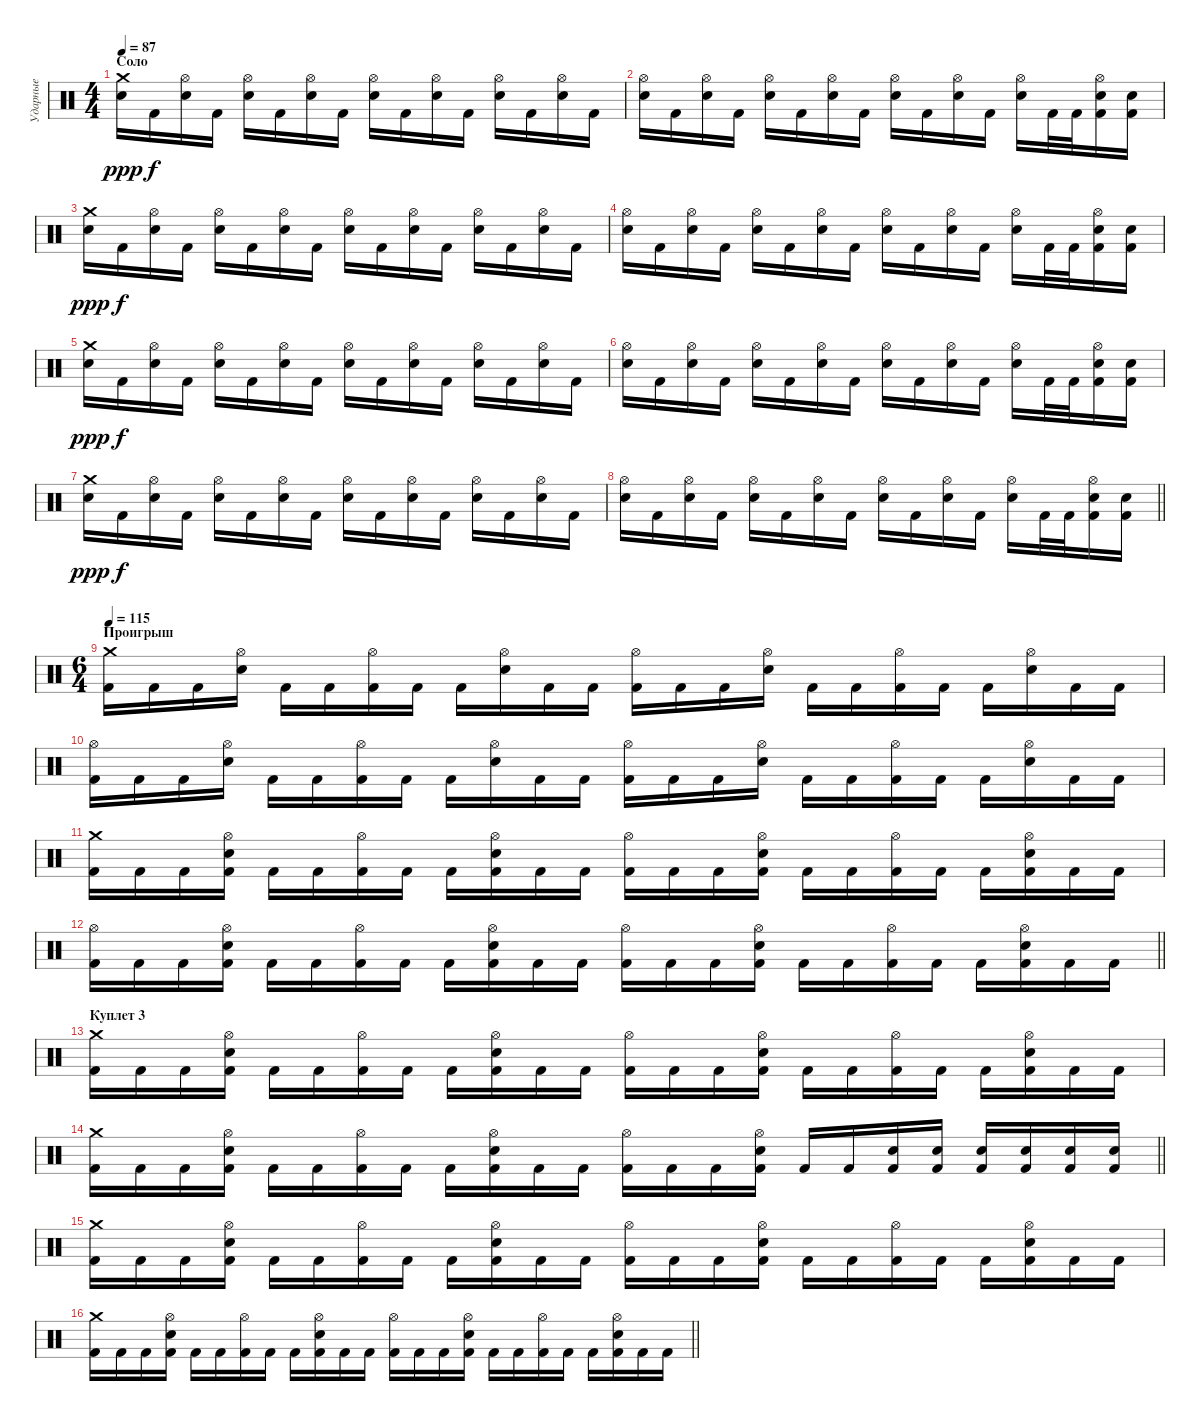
\track ("Ударные" "Ударные") {instrument percussion}
\staff {score}
\articulation defaults
\ts (4 4)
\section ("" "Соло")
\tempo 87
\clef neutral
\ks c
("Crash medium (hit)" "Electric Snare (hit)").16{dy ppp} "Kick (hit) 2".16{dy f} ("Hi-Hat (open)" "Electric Snare (hit)").16 "Kick (hit) 2".16 ("Hi-Hat (open)" "Electric Snare (hit)").16 "Kick (hit) 2".16 ("Hi-Hat (open)" "Electric Snare (hit)").16 "Kick (hit) 2".16 ("Hi-Hat (open)" "Electric Snare (hit)").16 "Kick (hit) 2".16 ("Hi-Hat (open)" "Electric Snare (hit)").16 "Kick (hit) 2".16 ("Hi-Hat (open)" "Electric Snare (hit)").16 "Kick (hit) 2".16 ("Hi-Hat (open)" "Electric Snare (hit)").16 "Kick (hit) 2".16 |
("Hi-Hat (open)" "Electric Snare (hit)").16 "Kick (hit) 2".16 ("Hi-Hat (open)" "Electric Snare (hit)").16 "Kick (hit) 2".16 ("Hi-Hat (open)" "Electric Snare (hit)").16 "Kick (hit) 2".16 ("Hi-Hat (open)" "Electric Snare (hit)").16 "Kick (hit) 2".16 ("Hi-Hat (open)" "Electric Snare (hit)").16 "Kick (hit) 2".16 ("Hi-Hat (open)" "Electric Snare (hit)").16 "Kick (hit) 2".16 ("Hi-Hat (open)" "Electric Snare (hit)").16 "Kick (hit) 2".32 "Kick (hit) 2".32 ("Hi-Hat (open)" "Electric Snare (hit)" "Kick (hit) 2").16 ("Electric Snare (hit)" "Kick (hit) 2").16 |
("Crash medium (hit)" "Electric Snare (hit)").16{dy ppp} "Kick (hit) 2".16{dy f} ("Hi-Hat (open)" "Electric Snare (hit)").16 "Kick (hit) 2".16 ("Hi-Hat (open)" "Electric Snare (hit)").16 "Kick (hit) 2".16 ("Hi-Hat (open)" "Electric Snare (hit)").16 "Kick (hit) 2".16 ("Hi-Hat (open)" "Electric Snare (hit)").16 "Kick (hit) 2".16 ("Hi-Hat (open)" "Electric Snare (hit)").16 "Kick (hit) 2".16 ("Hi-Hat (open)" "Electric Snare (hit)").16 "Kick (hit) 2".16 ("Hi-Hat (open)" "Electric Snare (hit)").16 "Kick (hit) 2".16 |
("Hi-Hat (open)" "Electric Snare (hit)").16 "Kick (hit) 2".16 ("Hi-Hat (open)" "Electric Snare (hit)").16 "Kick (hit) 2".16 ("Hi-Hat (open)" "Electric Snare (hit)").16 "Kick (hit) 2".16 ("Hi-Hat (open)" "Electric Snare (hit)").16 "Kick (hit) 2".16 ("Hi-Hat (open)" "Electric Snare (hit)").16 "Kick (hit) 2".16 ("Hi-Hat (open)" "Electric Snare (hit)").16 "Kick (hit) 2".16 ("Hi-Hat (open)" "Electric Snare (hit)").16 "Kick (hit) 2".32 "Kick (hit) 2".32 ("Hi-Hat (open)" "Electric Snare (hit)" "Kick (hit) 2").16 ("Electric Snare (hit)" "Kick (hit) 2").16 |
("Crash medium (hit)" "Electric Snare (hit)").16{dy ppp} "Kick (hit) 2".16{dy f} ("Hi-Hat (open)" "Electric Snare (hit)").16 "Kick (hit) 2".16 ("Hi-Hat (open)" "Electric Snare (hit)").16 "Kick (hit) 2".16 ("Hi-Hat (open)" "Electric Snare (hit)").16 "Kick (hit) 2".16 ("Hi-Hat (open)" "Electric Snare (hit)").16 "Kick (hit) 2".16 ("Hi-Hat (open)" "Electric Snare (hit)").16 "Kick (hit) 2".16 ("Hi-Hat (open)" "Electric Snare (hit)").16 "Kick (hit) 2".16 ("Hi-Hat (open)" "Electric Snare (hit)").16 "Kick (hit) 2".16 |
("Hi-Hat (open)" "Electric Snare (hit)").16 "Kick (hit) 2".16 ("Hi-Hat (open)" "Electric Snare (hit)").16 "Kick (hit) 2".16 ("Hi-Hat (open)" "Electric Snare (hit)").16 "Kick (hit) 2".16 ("Hi-Hat (open)" "Electric Snare (hit)").16 "Kick (hit) 2".16 ("Hi-Hat (open)" "Electric Snare (hit)").16 "Kick (hit) 2".16 ("Hi-Hat (open)" "Electric Snare (hit)").16 "Kick (hit) 2".16 ("Hi-Hat (open)" "Electric Snare (hit)").16 "Kick (hit) 2".32 "Kick (hit) 2".32 ("Hi-Hat (open)" "Electric Snare (hit)" "Kick (hit) 2").16 ("Electric Snare (hit)" "Kick (hit) 2").16 |
("Crash medium (hit)" "Electric Snare (hit)").16{dy ppp} "Kick (hit) 2".16{dy f} ("Hi-Hat (open)" "Electric Snare (hit)").16 "Kick (hit) 2".16 ("Hi-Hat (open)" "Electric Snare (hit)").16 "Kick (hit) 2".16 ("Hi-Hat (open)" "Electric Snare (hit)").16 "Kick (hit) 2".16 ("Hi-Hat (open)" "Electric Snare (hit)").16 "Kick (hit) 2".16 ("Hi-Hat (open)" "Electric Snare (hit)").16 "Kick (hit) 2".16 ("Hi-Hat (open)" "Electric Snare (hit)").16 "Kick (hit) 2".16 ("Hi-Hat (open)" "Electric Snare (hit)").16 "Kick (hit) 2".16 |
\barLineRight lightlight
("Hi-Hat (open)" "Electric Snare (hit)").16 "Kick (hit) 2".16 ("Hi-Hat (open)" "Electric Snare (hit)").16 "Kick (hit) 2".16 ("Hi-Hat (open)" "Electric Snare (hit)").16 "Kick (hit) 2".16 ("Hi-Hat (open)" "Electric Snare (hit)").16 "Kick (hit) 2".16 ("Hi-Hat (open)" "Electric Snare (hit)").16 "Kick (hit) 2".16 ("Hi-Hat (open)" "Electric Snare (hit)").16 "Kick (hit) 2".16 ("Hi-Hat (open)" "Electric Snare (hit)").16 "Kick (hit) 2".32 "Kick (hit) 2".32 ("Hi-Hat (open)" "Electric Snare (hit)" "Kick (hit) 2").16 ("Electric Snare (hit)" "Kick (hit) 2").16 |
\ts (6 4)
\section ("" "Проигрыш")
\tempo 115
("Crash medium (hit)" "Kick (hit) 2").16 "Kick (hit) 2".16 "Kick (hit) 2".16 ("Hi-Hat (open)" "Electric Snare (hit)").16 "Kick (hit) 2".16 "Kick (hit) 2".16 ("Hi-Hat (open)" "Kick (hit) 2").16 "Kick (hit) 2".16 "Kick (hit) 2".16 ("Hi-Hat (open)" "Electric Snare (hit)").16 "Kick (hit) 2".16 "Kick (hit) 2".16 ("Hi-Hat (open)" "Kick (hit) 2").16 "Kick (hit) 2".16 "Kick (hit) 2".16 ("Hi-Hat (open)" "Electric Snare (hit)").16 "Kick (hit) 2".16 "Kick (hit) 2".16 ("Hi-Hat (open)" "Kick (hit) 2").16 "Kick (hit) 2".16 "Kick (hit) 2".16 ("Hi-Hat (open)" "Electric Snare (hit)").16 "Kick (hit) 2".16 "Kick (hit) 2".16 |
("Hi-Hat (open)" "Kick (hit) 2").16 "Kick (hit) 2".16 "Kick (hit) 2".16 ("Hi-Hat (open)" "Electric Snare (hit)").16 "Kick (hit) 2".16 "Kick (hit) 2".16 ("Hi-Hat (open)" "Kick (hit) 2").16 "Kick (hit) 2".16 "Kick (hit) 2".16 ("Hi-Hat (open)" "Electric Snare (hit)").16 "Kick (hit) 2".16 "Kick (hit) 2".16 ("Hi-Hat (open)" "Kick (hit) 2").16 "Kick (hit) 2".16 "Kick (hit) 2".16 ("Hi-Hat (open)" "Electric Snare (hit)").16 "Kick (hit) 2".16 "Kick (hit) 2".16 ("Hi-Hat (open)" "Kick (hit) 2").16 "Kick (hit) 2".16 "Kick (hit) 2".16 ("Hi-Hat (open)" "Electric Snare (hit)").16 "Kick (hit) 2".16 "Kick (hit) 2".16 |
("Crash medium (hit)" "Kick (hit) 2").16 "Kick (hit) 2".16 "Kick (hit) 2".16 ("Hi-Hat (open)" "Electric Snare (hit)" "Kick (hit) 2").16 "Kick (hit) 2".16 "Kick (hit) 2".16 ("Hi-Hat (open)" "Kick (hit) 2").16 "Kick (hit) 2".16 "Kick (hit) 2".16 ("Hi-Hat (open)" "Electric Snare (hit)" "Kick (hit) 2").16 "Kick (hit) 2".16 "Kick (hit) 2".16 ("Hi-Hat (open)" "Kick (hit) 2").16 "Kick (hit) 2".16 "Kick (hit) 2".16 ("Hi-Hat (open)" "Electric Snare (hit)" "Kick (hit) 2").16 "Kick (hit) 2".16 "Kick (hit) 2".16 ("Hi-Hat (open)" "Kick (hit) 2").16 "Kick (hit) 2".16 "Kick (hit) 2".16 ("Hi-Hat (open)" "Electric Snare (hit)" "Kick (hit) 2").16 "Kick (hit) 2".16 "Kick (hit) 2".16 |
\barLineRight lightlight
("Hi-Hat (open)" "Kick (hit) 2").16 "Kick (hit) 2".16 "Kick (hit) 2".16 ("Hi-Hat (open)" "Electric Snare (hit)" "Kick (hit) 2").16 "Kick (hit) 2".16 "Kick (hit) 2".16 ("Hi-Hat (open)" "Kick (hit) 2").16 "Kick (hit) 2".16 "Kick (hit) 2".16 ("Hi-Hat (open)" "Electric Snare (hit)" "Kick (hit) 2").16 "Kick (hit) 2".16 "Kick (hit) 2".16 ("Hi-Hat (open)" "Kick (hit) 2").16 "Kick (hit) 2".16 "Kick (hit) 2".16 ("Hi-Hat (open)" "Electric Snare (hit)" "Kick (hit) 2").16 "Kick (hit) 2".16 "Kick (hit) 2".16 ("Hi-Hat (open)" "Kick (hit) 2").16 "Kick (hit) 2".16 "Kick (hit) 2".16 ("Hi-Hat (open)" "Electric Snare (hit)" "Kick (hit) 2").16 "Kick (hit) 2".16 "Kick (hit) 2".16 |
\section ("" "Куплет 3")
("Crash medium (hit)" "Kick (hit) 2").16 "Kick (hit) 2".16 "Kick (hit) 2".16 ("Hi-Hat (open)" "Electric Snare (hit)" "Kick (hit) 2").16 "Kick (hit) 2".16 "Kick (hit) 2".16 ("Hi-Hat (open)" "Kick (hit) 2").16 "Kick (hit) 2".16 "Kick (hit) 2".16 ("Hi-Hat (open)" "Electric Snare (hit)" "Kick (hit) 2").16 "Kick (hit) 2".16 "Kick (hit) 2".16 ("Hi-Hat (open)" "Kick (hit) 2").16 "Kick (hit) 2".16 "Kick (hit) 2".16 ("Hi-Hat (open)" "Electric Snare (hit)" "Kick (hit) 2").16 "Kick (hit) 2".16 "Kick (hit) 2".16 ("Hi-Hat (open)" "Kick (hit) 2").16 "Kick (hit) 2".16 "Kick (hit) 2".16 ("Hi-Hat (open)" "Electric Snare (hit)" "Kick (hit) 2").16 "Kick (hit) 2".16 "Kick (hit) 2".16 |
\barLineRight lightlight
("Crash medium (hit)" "Kick (hit) 2").16 "Kick (hit) 2".16 "Kick (hit) 2".16 ("Hi-Hat (open)" "Electric Snare (hit)" "Kick (hit) 2").16 "Kick (hit) 2".16 "Kick (hit) 2".16 ("Hi-Hat (open)" "Kick (hit) 2").16 "Kick (hit) 2".16 "Kick (hit) 2".16 ("Hi-Hat (open)" "Electric Snare (hit)" "Kick (hit) 2").16 "Kick (hit) 2".16 "Kick (hit) 2".16 ("Hi-Hat (open)" "Kick (hit) 2").16 "Kick (hit) 2".16 "Kick (hit) 2".16 ("Hi-Hat (open)" "Electric Snare (hit)" "Kick (hit) 2").16 "Kick (hit) 2".16 "Kick (hit) 2".16 ("Electric Snare (hit)" "Kick (hit) 2").16 ("Electric Snare (hit)" "Kick (hit) 2").16 ("Electric Snare (hit)" "Kick (hit) 2").16 ("Electric Snare (hit)" "Kick (hit) 2").16 ("Electric Snare (hit)" "Kick (hit) 2").16 ("Electric Snare (hit)" "Kick (hit) 2").16 |
("Crash medium (hit)" "Kick (hit) 2").16 "Kick (hit) 2".16 "Kick (hit) 2".16 ("Hi-Hat (open)" "Electric Snare (hit)" "Kick (hit) 2").16 "Kick (hit) 2".16 "Kick (hit) 2".16 ("Hi-Hat (open)" "Kick (hit) 2").16 "Kick (hit) 2".16 "Kick (hit) 2".16 ("Hi-Hat (open)" "Electric Snare (hit)" "Kick (hit) 2").16 "Kick (hit) 2".16 "Kick (hit) 2".16 ("Hi-Hat (open)" "Kick (hit) 2").16 "Kick (hit) 2".16 "Kick (hit) 2".16 ("Hi-Hat (open)" "Electric Snare (hit)" "Kick (hit) 2").16 "Kick (hit) 2".16 "Kick (hit) 2".16 ("Hi-Hat (open)" "Kick (hit) 2").16 "Kick (hit) 2".16 "Kick (hit) 2".16 ("Hi-Hat (open)" "Electric Snare (hit)" "Kick (hit) 2").16 "Kick (hit) 2".16 "Kick (hit) 2".16 |
\barLineRight lightlight
("Crash medium (hit)" "Kick (hit) 2").16 "Kick (hit) 2".16 "Kick (hit) 2".16 ("Hi-Hat (open)" "Electric Snare (hit)" "Kick (hit) 2").16 "Kick (hit) 2".16 "Kick (hit) 2".16 ("Hi-Hat (open)" "Kick (hit) 2").16 "Kick (hit) 2".16 "Kick (hit) 2".16 ("Hi-Hat (open)" "Electric Snare (hit)" "Kick (hit) 2").16 "Kick (hit) 2".16 "Kick (hit) 2".16 ("Hi-Hat (open)" "Kick (hit) 2").16 "Kick (hit) 2".16 "Kick (hit) 2".16 ("Hi-Hat (open)" "Electric Snare (hit)" "Kick (hit) 2").16 "Kick (hit) 2".16 "Kick (hit) 2".16 ("Hi-Hat (open)" "Kick (hit) 2").16 "Kick (hit) 2".16 "Kick (hit) 2".16 ("Hi-Hat (open)" "Electric Snare (hit)" "Kick (hit) 2").16 "Kick (hit) 2".16 "Kick (hit) 2".16
